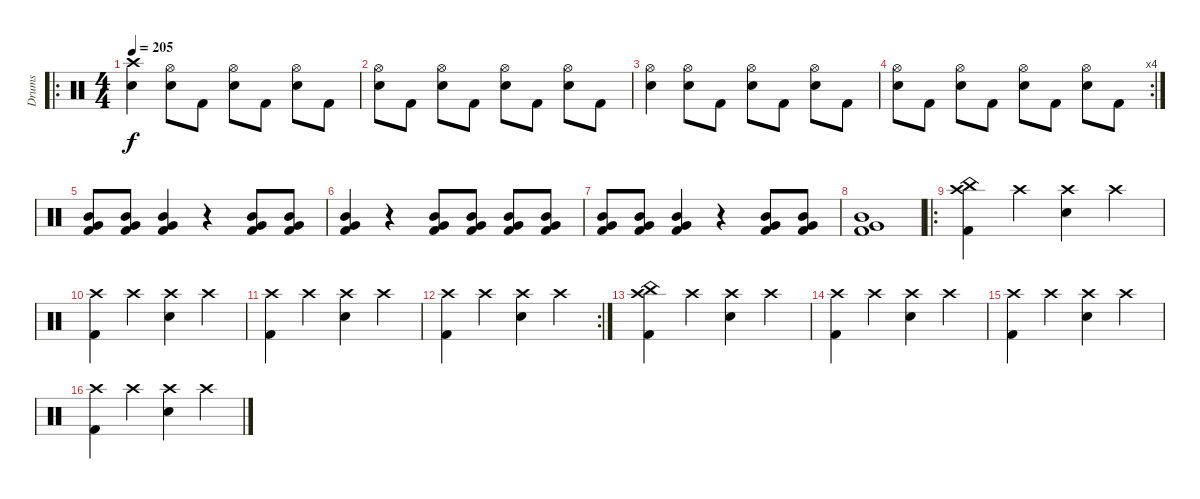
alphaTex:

\track ("Drums" "Drums") {instrument percussion}
\staff {score}
\articulation defaults
\ro
\ts (4 4)
\tempo 205
\clef neutral
\ks c
("Crash high (hit)" "Electric Snare (hit)").4{dy f} ("Hi-Hat (open)" "Electric Snare (hit)").8 "Kick (hit) 2".8 ("Hi-Hat (open)" "Electric Snare (hit)").8 "Kick (hit) 2".8 ("Hi-Hat (open)" "Electric Snare (hit)").8 "Kick (hit) 2".8 |
("Hi-Hat (open)" "Electric Snare (hit)").8 "Kick (hit) 2".8 ("Hi-Hat (open)" "Electric Snare (hit)").8 "Kick (hit) 2".8 ("Hi-Hat (open)" "Electric Snare (hit)").8 "Kick (hit) 2".8 ("Hi-Hat (open)" "Electric Snare (hit)").8 "Kick (hit) 2".8 |
("Hi-Hat (open)" "Electric Snare (hit)").4 ("Hi-Hat (open)" "Electric Snare (hit)").8 "Kick (hit) 2".8 ("Hi-Hat (open)" "Electric Snare (hit)").8 "Kick (hit) 2".8 ("Hi-Hat (open)" "Electric Snare (hit)").8 "Kick (hit) 2".8 |
\rc 4
("Hi-Hat (open)" "Electric Snare (hit)").8 "Kick (hit) 2".8 ("Hi-Hat (open)" "Electric Snare (hit)").8 "Kick (hit) 2".8 ("Hi-Hat (open)" "Electric Snare (hit)").8 "Kick (hit) 2".8 ("Hi-Hat (open)" "Electric Snare (hit)").8 "Kick (hit) 2".8 |
("Very Low Tom (hit)" "Mid Tom (hit)" "Kick (hit) 2").8 ("Very Low Tom (hit)" "Mid Tom (hit)" "Kick (hit) 2").8 ("Very Low Tom (hit)" "Mid Tom (hit)" "Kick (hit) 2").4 r.4 ("Very Low Tom (hit)" "Mid Tom (hit)" "Kick (hit) 2").8 ("Very Low Tom (hit)" "Mid Tom (hit)" "Kick (hit) 2").8 |
("Very Low Tom (hit)" "Mid Tom (hit)" "Kick (hit) 2").4 r.4 ("Very Low Tom (hit)" "Mid Tom (hit)" "Kick (hit) 2").8 ("Very Low Tom (hit)" "Mid Tom (hit)" "Kick (hit) 2").8 ("Very Low Tom (hit)" "Mid Tom (hit)" "Kick (hit) 2").8 ("Very Low Tom (hit)" "Mid Tom (hit)" "Kick (hit) 2").8 |
("Very Low Tom (hit)" "Mid Tom (hit)" "Kick (hit) 2").8 ("Very Low Tom (hit)" "Mid Tom (hit)" "Kick (hit) 2").8 ("Very Low Tom (hit)" "Mid Tom (hit)" "Kick (hit) 2").4 r.4 ("Very Low Tom (hit)" "Mid Tom (hit)" "Kick (hit) 2").8 ("Very Low Tom (hit)" "Mid Tom (hit)" "Kick (hit) 2").8 |
("Very Low Tom (hit)" "Mid Tom (hit)" "Kick (hit) 2").1 |
\ro
("China (hit)" "Crash high (hit)" "Kick (hit) 2").4 "Crash high (hit)".4 ("Crash high (hit)" "Electric Snare (hit)").4 "Crash high (hit)".4 |
("Crash high (hit)" "Kick (hit) 2").4 "Crash high (hit)".4 ("Crash high (hit)" "Electric Snare (hit)").4 "Crash high (hit)".4 |
("Crash high (hit)" "Kick (hit) 2").4 "Crash high (hit)".4 ("Crash high (hit)" "Electric Snare (hit)").4 "Crash high (hit)".4 |
\rc 2
("Crash high (hit)" "Kick (hit) 2").4 "Crash high (hit)".4 ("Crash high (hit)" "Electric Snare (hit)").4 "Crash high (hit)".4 |
("China (hit)" "Crash high (hit)" "Kick (hit) 2").4 "Crash high (hit)".4 ("Crash high (hit)" "Electric Snare (hit)").4 "Crash high (hit)".4 |
("Crash high (hit)" "Kick (hit) 2").4 "Crash high (hit)".4 ("Crash high (hit)" "Electric Snare (hit)").4 "Crash high (hit)".4 |
("Crash high (hit)" "Kick (hit) 2").4 "Crash high (hit)".4 ("Crash high (hit)" "Electric Snare (hit)").4 "Crash high (hit)".4 |
("Crash high (hit)" "Kick (hit) 2").4 "Crash high (hit)".4 ("Crash high (hit)" "Electric Snare (hit)").4 "Crash high (hit)".4
